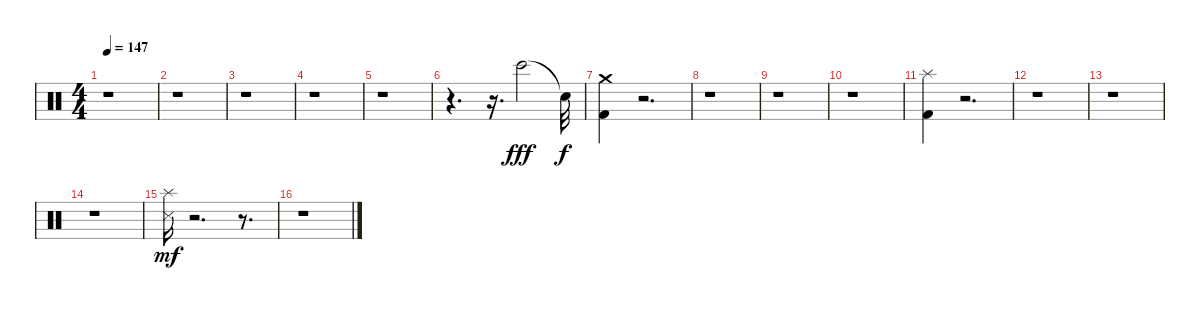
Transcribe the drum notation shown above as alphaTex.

\track "" {instrument percussion}
\staff {score}
\articulation defaults
\ts (4 4)
\tempo 147
\clef neutral
\ks c
r.1{dy f} |
r.1 |
r.1 |
r.1 |
r.1 |
r.4{d} r.16{d} "Bongo High (hit)".2{dy fff} "Snare (hit)"{t}.32{dy f} |
("Crash medium (hit)" "Kick (hit) 2").4 r.2{d} |
r.1 |
r.1 |
r.1 |
("Splash (hit)" "Kick (hit) 2").4 r.2{d} |
r.1 |
r.1 |
r.1 |
("Splash (hit)" "Metronome (hit)").16{dy mf} r.2{d} r.8{d} |
r.1
